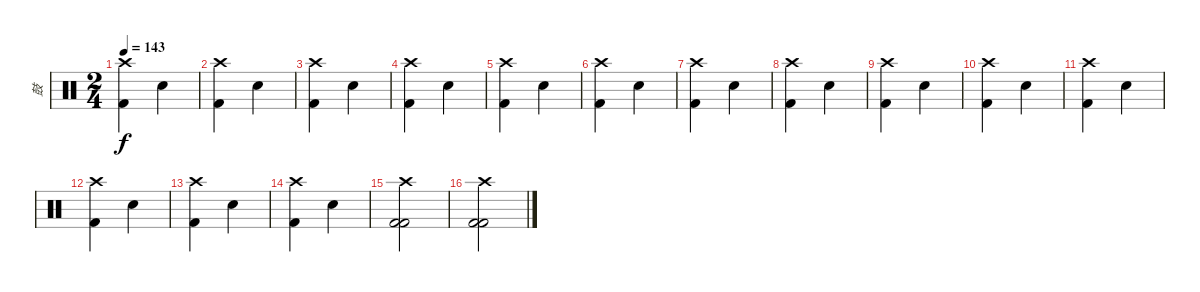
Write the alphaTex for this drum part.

\track ("鼓" "鼓") {instrument percussion}
\staff {score}
\articulation defaults
\ts (2 4)
\tempo 143
\clef neutral
\ks c
("Kick (hit) 2" "Crash high (hit)").4{dy f} "Hand Clap (hit)".4 |
("Kick (hit) 2" "Crash high (hit)").4 "Hand Clap (hit)".4 |
("Kick (hit) 2" "Crash high (hit)").4 "Hand Clap (hit)".4 |
("Kick (hit) 2" "Crash high (hit)").4 "Hand Clap (hit)".4 |
("Kick (hit) 2" "Crash high (hit)").4 "Hand Clap (hit)".4 |
("Kick (hit) 2" "Crash high (hit)").4 "Hand Clap (hit)".4 |
("Kick (hit) 2" "Crash high (hit)").4 "Hand Clap (hit)".4 |
("Kick (hit) 2" "Crash high (hit)").4 "Hand Clap (hit)".4 |
("Kick (hit) 2" "Crash high (hit)").4 "Hand Clap (hit)".4 |
("Kick (hit) 2" "Crash high (hit)").4 "Hand Clap (hit)".4 |
("Kick (hit) 2" "Crash high (hit)").4 "Hand Clap (hit)".4 |
("Kick (hit) 2" "Crash high (hit)").4 "Hand Clap (hit)".4 |
("Kick (hit) 2" "Crash high (hit)").4 "Hand Clap (hit)".4 |
("Kick (hit) 2" "Crash high (hit)").4 "Hand Clap (hit)".4 |
("Kick (hit) 2" "Crash high (hit)" "Kick (hit) 2").2 |
("Kick (hit) 2" "Crash high (hit)" "Kick (hit) 2").2
